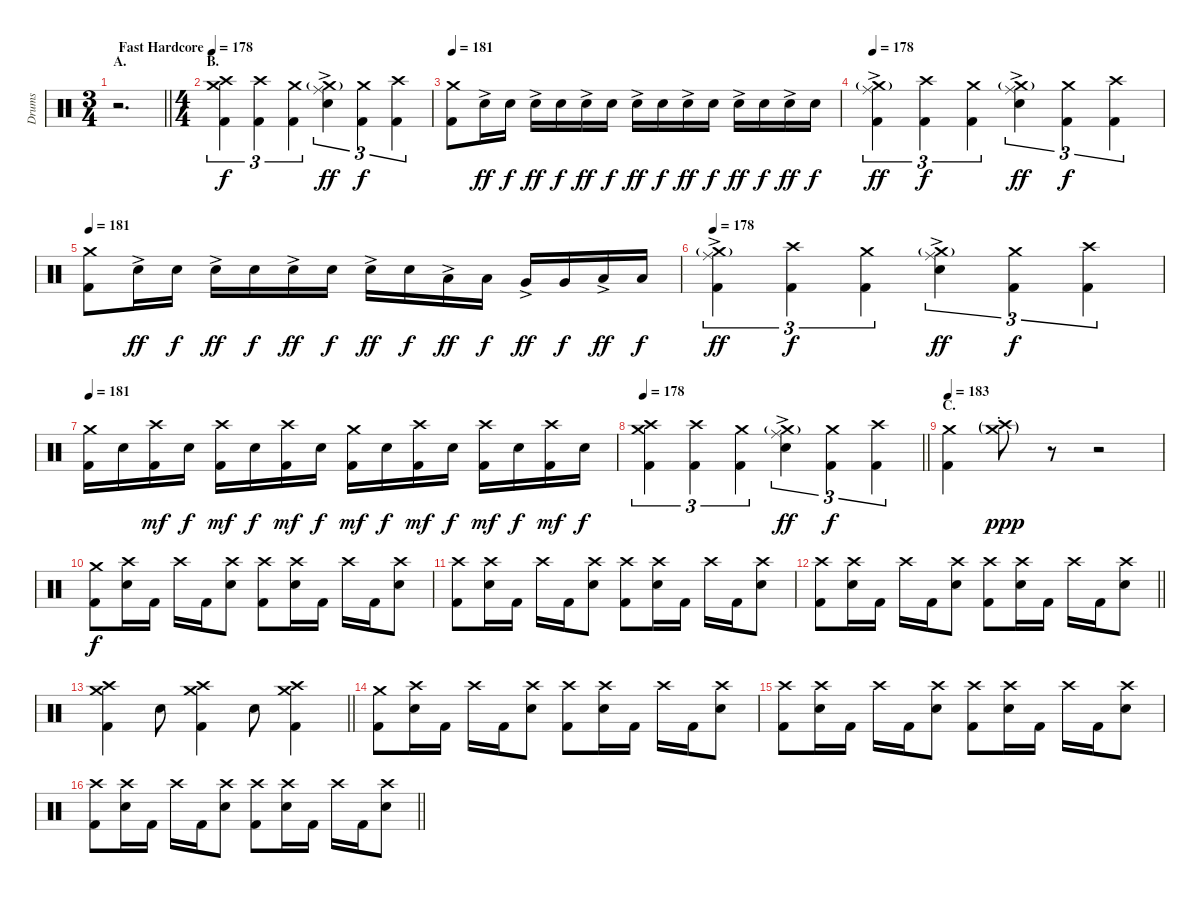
\track ("Drums" "Drums") {instrument percussion}
\staff {score}
\articulation defaults
\ts (3 4)
\section ("" "A.")
\tempo (178 "Fast Hardcore")
\clef neutral
\barLineRight lightlight
\ks c
r.2{d dy f} |
\ts (4 4)
\section ("" "B.")
("Crash medium (hit)" "Crash high (hit)" "Kick (hit) 2").4{tu (3 2)} ("Crash high (hit)" "Kick (hit) 2").4{tu (3 2)} ("Crash medium (hit)" "Kick (hit) 2").4{tu (3 2)} ("Crash medium (hit)"{g} "Ride (middle)"{ac} "Electric Snare (hit)").4{tu (3 2) dy ff} ("Crash medium (hit)" "Kick (hit) 2").4{tu (3 2) dy f} ("Crash high (hit)" "Kick (hit) 2").4{tu (3 2)} |
\tempo 181
("Crash medium (hit)" "Kick (hit) 2").8 "Electric Snare (hit)"{ac}.16{dy ff} "Electric Snare (hit)".16{dy f} "Electric Snare (hit)"{ac}.16{dy ff} "Electric Snare (hit)".16{dy f} "Electric Snare (hit)"{ac}.16{dy ff} "Electric Snare (hit)".16{dy f} "Electric Snare (hit)"{ac}.16{dy ff} "Electric Snare (hit)".16{dy f} "Electric Snare (hit)"{ac}.16{dy ff} "Electric Snare (hit)".16{dy f} "Electric Snare (hit)"{ac}.16{dy ff} "Electric Snare (hit)".16{dy f} "Electric Snare (hit)"{ac}.16{dy ff} "Electric Snare (hit)".16{dy f} |
\tempo 178
("Crash medium (hit)"{g} "Ride (middle)"{ac} "Kick (hit) 2").4{tu (3 2) dy ff} ("Crash high (hit)" "Kick (hit) 2").4{tu (3 2) dy f} ("Crash medium (hit)" "Kick (hit) 2").4{tu (3 2)} ("Crash medium (hit)"{g} "Ride (middle)"{ac} "Electric Snare (hit)").4{tu (3 2) dy ff} ("Crash medium (hit)" "Kick (hit) 2").4{tu (3 2) dy f} ("Crash high (hit)" "Kick (hit) 2").4{tu (3 2)} |
\tempo 181
("Crash medium (hit)" "Kick (hit) 2").8 "Electric Snare (hit)"{ac}.16{dy ff} "Electric Snare (hit)".16{dy f} "Electric Snare (hit)"{ac}.16{dy ff} "Electric Snare (hit)".16{dy f} "Electric Snare (hit)"{ac}.16{dy ff} "Electric Snare (hit)".16{dy f} "Electric Snare (hit)"{ac}.16{dy ff} "Electric Snare (hit)".16{dy f} "Low Tom (hit)"{ac}.16{dy ff} "Low Tom (hit)".16{dy f} "Very Low Tom (hit)"{ac}.16{dy ff} "Very Low Tom (hit)".16{dy f} "Low Floor Tom (hit)"{ac}.16{dy ff} "Low Floor Tom (hit)".16{dy f} |
\tempo 178
("Crash medium (hit)"{g} "Ride (middle)"{ac} "Kick (hit) 2").4{tu (3 2) dy ff} ("Crash high (hit)" "Kick (hit) 2").4{tu (3 2) dy f} ("Crash medium (hit)" "Kick (hit) 2").4{tu (3 2)} ("Crash medium (hit)"{g} "Ride (middle)"{ac} "Electric Snare (hit)").4{tu (3 2) dy ff} ("Crash medium (hit)" "Kick (hit) 2").4{tu (3 2) dy f} ("Crash high (hit)" "Kick (hit) 2").4{tu (3 2)} |
\tempo 181
("Crash medium (hit)" "Kick (hit) 2").16 "Electric Snare (hit)".16 ("Crash high (hit)" "Kick (hit) 2").16{dy mf} "Electric Snare (hit)".16{dy f} ("Crash high (hit)" "Kick (hit) 2").16{dy mf} "Electric Snare (hit)".16{dy f} ("Crash high (hit)" "Kick (hit) 2").16{dy mf} "Electric Snare (hit)".16{dy f} ("Crash medium (hit)" "Kick (hit) 2").16{dy mf} "Electric Snare (hit)".16{dy f} ("Crash high (hit)" "Kick (hit) 2").16{dy mf} "Electric Snare (hit)".16{dy f} ("Crash high (hit)" "Kick (hit) 2").16{dy mf} "Electric Snare (hit)".16{dy f} ("Crash high (hit)" "Kick (hit) 2").16{dy mf} "Electric Snare (hit)".16{dy f} |
\tempo 178
\barLineRight lightlight
("Crash medium (hit)" "Crash high (hit)" "Kick (hit) 2").4{tu (3 2)} ("Crash high (hit)" "Kick (hit) 2").4{tu (3 2)} ("Crash medium (hit)" "Kick (hit) 2").4{tu (3 2)} ("Crash medium (hit)"{g} "Ride (middle)"{ac} "Electric Snare (hit)").4{tu (3 2) dy ff} ("Crash medium (hit)" "Kick (hit) 2").4{tu (3 2) dy f} ("Crash high (hit)" "Kick (hit) 2").4{tu (3 2)} |
\section ("" "C.")
\tempo 183
("Crash medium (hit)" "Kick (hit) 2").4 ("Crash medium (hit)"{g st} "Crash high (hit)"{g}).8{dy ppp} r.8 r.2 |
("Crash medium (hit)" "Kick (hit) 2").8{dy f} ("Crash high (hit)" "Electric Snare (hit)").16 "Kick (hit) 2".16 "Crash high (hit)".16 "Kick (hit) 2".16 ("Crash high (hit)" "Electric Snare (hit)").8 ("Crash high (hit)" "Kick (hit) 2").8 ("Crash high (hit)" "Electric Snare (hit)").16 "Kick (hit) 2".16 "Crash high (hit)".16 "Kick (hit) 2".16 ("Crash high (hit)" "Electric Snare (hit)").8 |
("Crash high (hit)" "Kick (hit) 2").8 ("Crash high (hit)" "Electric Snare (hit)").16 "Kick (hit) 2".16 "Crash high (hit)".16 "Kick (hit) 2".16 ("Crash high (hit)" "Electric Snare (hit)").8 ("Crash high (hit)" "Kick (hit) 2").8 ("Crash high (hit)" "Electric Snare (hit)").16 "Kick (hit) 2".16 "Crash high (hit)".16 "Kick (hit) 2".16 ("Crash high (hit)" "Electric Snare (hit)").8 |
\barLineRight lightlight
("Crash high (hit)" "Kick (hit) 2").8 ("Crash high (hit)" "Electric Snare (hit)").16 "Kick (hit) 2".16 "Crash high (hit)".16 "Kick (hit) 2".16 ("Crash high (hit)" "Electric Snare (hit)").8 ("Crash high (hit)" "Kick (hit) 2").8 ("Crash high (hit)" "Electric Snare (hit)").16 "Kick (hit) 2".16 "Crash high (hit)".16 "Kick (hit) 2".16 ("Crash high (hit)" "Electric Snare (hit)").8 |
\section ("" "")
\barLineRight lightlight
("Crash medium (hit)" "Crash high (hit)" "Kick (hit) 2").4 "Electric Snare (hit)".8 ("Crash medium (hit)" "Crash high (hit)" "Kick (hit) 2").4 "Electric Snare (hit)".8 ("Crash medium (hit)" "Crash high (hit)" "Kick (hit) 2").4 |
\section ("" "")
("Crash medium (hit)" "Kick (hit) 2").8 ("Crash high (hit)" "Electric Snare (hit)").16 "Kick (hit) 2".16 "Crash high (hit)".16 "Kick (hit) 2".16 ("Crash high (hit)" "Electric Snare (hit)").8 ("Crash high (hit)" "Kick (hit) 2").8 ("Crash high (hit)" "Electric Snare (hit)").16 "Kick (hit) 2".16 "Crash high (hit)".16 "Kick (hit) 2".16 ("Crash high (hit)" "Electric Snare (hit)").8 |
("Crash high (hit)" "Kick (hit) 2").8 ("Crash high (hit)" "Electric Snare (hit)").16 "Kick (hit) 2".16 "Crash high (hit)".16 "Kick (hit) 2".16 ("Crash high (hit)" "Electric Snare (hit)").8 ("Crash high (hit)" "Kick (hit) 2").8 ("Crash high (hit)" "Electric Snare (hit)").16 "Kick (hit) 2".16 "Crash high (hit)".16 "Kick (hit) 2".16 ("Crash high (hit)" "Electric Snare (hit)").8 |
\barLineRight lightlight
("Crash high (hit)" "Kick (hit) 2").8 ("Crash high (hit)" "Electric Snare (hit)").16 "Kick (hit) 2".16 "Crash high (hit)".16 "Kick (hit) 2".16 ("Crash high (hit)" "Electric Snare (hit)").8 ("Crash high (hit)" "Kick (hit) 2").8 ("Crash high (hit)" "Electric Snare (hit)").16 "Kick (hit) 2".16 "Crash high (hit)".16 "Kick (hit) 2".16 ("Crash high (hit)" "Electric Snare (hit)").8
